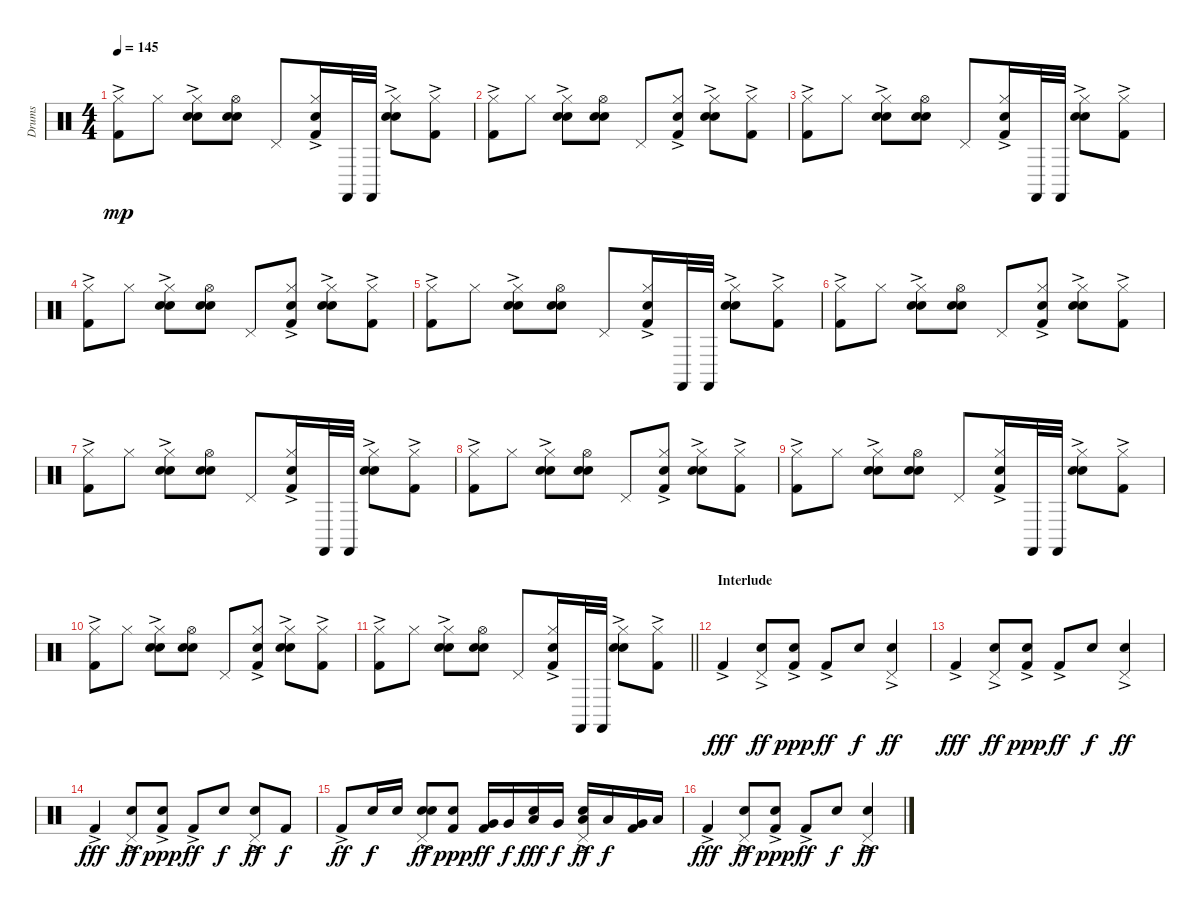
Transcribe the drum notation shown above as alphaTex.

\track ("Drums" "Drums") {instrument percussion}
\staff {score}
\articulation defaults
\ts (4 4)
\tempo 145
\clef neutral
\ks c
("Kick (hit) 2"{ac} "Hi-Hat (closed)").8{dy mp} "Hi-Hat (closed)".8 ("Hand Clap (hit)" "Electric Snare (hit)"{ac} "Hi-Hat (closed)").8 ("Hand Clap (hit)" "Electric Snare (hit)" "Hi-Hat (open)").8 "Pedal Hi-Hat (hit)".8 ("Kick (hit) 2"{ac} "Hand Clap (hit)" "Hi-Hat (closed)").16 "Castanets (hit)".32 "Castanets (hit)".32 ("Hand Clap (hit)" "Electric Snare (hit)"{ac} "Hi-Hat (closed)").8 ("Kick (hit) 2"{ac} "Hi-Hat (closed)").8 |
("Kick (hit) 2"{ac} "Hi-Hat (closed)").8 "Hi-Hat (closed)".8 ("Hand Clap (hit)" "Electric Snare (hit)"{ac} "Hi-Hat (closed)").8 ("Hand Clap (hit)" "Electric Snare (hit)" "Hi-Hat (open)").8 "Pedal Hi-Hat (hit)".8 ("Kick (hit) 2"{ac} "Hand Clap (hit)" "Hi-Hat (closed)").8 ("Hand Clap (hit)" "Electric Snare (hit)"{ac} "Hi-Hat (closed)").8 ("Kick (hit) 2"{ac} "Hi-Hat (closed)").8 |
("Kick (hit) 2"{ac} "Hi-Hat (closed)").8 "Hi-Hat (closed)".8 ("Hand Clap (hit)" "Electric Snare (hit)"{ac} "Hi-Hat (closed)").8 ("Hand Clap (hit)" "Electric Snare (hit)" "Hi-Hat (open)").8 "Pedal Hi-Hat (hit)".8 ("Kick (hit) 2"{ac} "Hand Clap (hit)" "Hi-Hat (closed)").16 "Castanets (hit)".32 "Castanets (hit)".32 ("Hand Clap (hit)" "Electric Snare (hit)"{ac} "Hi-Hat (closed)").8 ("Kick (hit) 2"{ac} "Hi-Hat (closed)").8 |
("Kick (hit) 2"{ac} "Hi-Hat (closed)").8 "Hi-Hat (closed)".8 ("Hand Clap (hit)" "Electric Snare (hit)"{ac} "Hi-Hat (closed)").8 ("Hand Clap (hit)" "Electric Snare (hit)" "Hi-Hat (open)").8 "Pedal Hi-Hat (hit)".8 ("Kick (hit) 2"{ac} "Hand Clap (hit)" "Hi-Hat (closed)").8 ("Hand Clap (hit)" "Electric Snare (hit)"{ac} "Hi-Hat (closed)").8 ("Kick (hit) 2"{ac} "Hi-Hat (closed)").8 |
("Kick (hit) 2"{ac} "Hi-Hat (closed)").8 "Hi-Hat (closed)".8 ("Hand Clap (hit)" "Electric Snare (hit)"{ac} "Hi-Hat (closed)").8 ("Hand Clap (hit)" "Electric Snare (hit)" "Hi-Hat (open)").8 "Pedal Hi-Hat (hit)".8 ("Kick (hit) 2"{ac} "Hand Clap (hit)" "Hi-Hat (closed)").16 "Castanets (hit)".32 "Castanets (hit)".32 ("Hand Clap (hit)" "Electric Snare (hit)"{ac} "Hi-Hat (closed)").8 ("Kick (hit) 2"{ac} "Hi-Hat (closed)").8 |
("Kick (hit) 2"{ac} "Hi-Hat (closed)").8 "Hi-Hat (closed)".8 ("Hand Clap (hit)" "Electric Snare (hit)"{ac} "Hi-Hat (closed)").8 ("Hand Clap (hit)" "Electric Snare (hit)" "Hi-Hat (open)").8 "Pedal Hi-Hat (hit)".8 ("Kick (hit) 2"{ac} "Hand Clap (hit)" "Hi-Hat (closed)").8 ("Hand Clap (hit)" "Electric Snare (hit)"{ac} "Hi-Hat (closed)").8 ("Kick (hit) 2"{ac} "Hi-Hat (closed)").8 |
("Kick (hit) 2"{ac} "Hi-Hat (closed)").8 "Hi-Hat (closed)".8 ("Hand Clap (hit)" "Electric Snare (hit)"{ac} "Hi-Hat (closed)").8 ("Hand Clap (hit)" "Electric Snare (hit)" "Hi-Hat (open)").8 "Pedal Hi-Hat (hit)".8 ("Kick (hit) 2"{ac} "Hand Clap (hit)" "Hi-Hat (closed)").16 "Castanets (hit)".32 "Castanets (hit)".32 ("Hand Clap (hit)" "Electric Snare (hit)"{ac} "Hi-Hat (closed)").8 ("Kick (hit) 2"{ac} "Hi-Hat (closed)").8 |
("Kick (hit) 2"{ac} "Hi-Hat (closed)").8 "Hi-Hat (closed)".8 ("Hand Clap (hit)" "Electric Snare (hit)"{ac} "Hi-Hat (closed)").8 ("Hand Clap (hit)" "Electric Snare (hit)" "Hi-Hat (open)").8 "Pedal Hi-Hat (hit)".8 ("Kick (hit) 2"{ac} "Hand Clap (hit)" "Hi-Hat (closed)").8 ("Hand Clap (hit)" "Electric Snare (hit)"{ac} "Hi-Hat (closed)").8 ("Kick (hit) 2"{ac} "Hi-Hat (closed)").8 |
("Kick (hit) 2"{ac} "Hi-Hat (closed)").8 "Hi-Hat (closed)".8 ("Hand Clap (hit)" "Electric Snare (hit)"{ac} "Hi-Hat (closed)").8 ("Hand Clap (hit)" "Electric Snare (hit)" "Hi-Hat (open)").8 "Pedal Hi-Hat (hit)".8 ("Kick (hit) 2"{ac} "Hand Clap (hit)" "Hi-Hat (closed)").16 "Castanets (hit)".32 "Castanets (hit)".32 ("Hand Clap (hit)" "Electric Snare (hit)"{ac} "Hi-Hat (closed)").8 ("Kick (hit) 2"{ac} "Hi-Hat (closed)").8 |
("Kick (hit) 2"{ac} "Hi-Hat (closed)").8 "Hi-Hat (closed)".8 ("Hand Clap (hit)" "Electric Snare (hit)"{ac} "Hi-Hat (closed)").8 ("Hand Clap (hit)" "Electric Snare (hit)" "Hi-Hat (open)").8 "Pedal Hi-Hat (hit)".8 ("Kick (hit) 2"{ac} "Hand Clap (hit)" "Hi-Hat (closed)").8 ("Hand Clap (hit)" "Electric Snare (hit)"{ac} "Hi-Hat (closed)").8 ("Kick (hit) 2"{ac} "Hi-Hat (closed)").8 |
\barLineRight lightlight
("Kick (hit) 2"{ac} "Hi-Hat (closed)").8 "Hi-Hat (closed)".8 ("Hand Clap (hit)" "Electric Snare (hit)"{ac} "Hi-Hat (closed)").8 ("Hand Clap (hit)" "Electric Snare (hit)" "Hi-Hat (open)").8 "Pedal Hi-Hat (hit)".8 ("Kick (hit) 2"{ac} "Hand Clap (hit)" "Hi-Hat (closed)").16 "Castanets (hit)".32 "Castanets (hit)".32 ("Hand Clap (hit)" "Electric Snare (hit)"{ac} "Hi-Hat (closed)").8 ("Kick (hit) 2"{ac} "Hi-Hat (closed)").8 |
\section ("" "Interlude")
"Kick (hit) 2"{ac}.4{dy fff} ("Pedal Hi-Hat (hit)" "Hand Clap (hit)"{ac}).8{dy ff} ("Kick (hit) 2"{ac} "Hand Clap (hit)").8{dy ppp} "Kick (hit) 2"{ac}.8{dy ff} "Hand Clap (hit)".8{dy f} ("Pedal Hi-Hat (hit)" "Hand Clap (hit)"{ac}).4{dy ff} |
"Kick (hit) 2"{ac}.4{dy fff} ("Pedal Hi-Hat (hit)" "Hand Clap (hit)"{ac}).8{dy ff} ("Kick (hit) 2"{ac} "Hand Clap (hit)").8{dy ppp} "Kick (hit) 2"{ac}.8{dy ff} "Hand Clap (hit)".8{dy f} ("Pedal Hi-Hat (hit)" "Hand Clap (hit)"{ac}).4{dy ff} |
"Kick (hit) 2"{ac}.4{dy fff} ("Pedal Hi-Hat (hit)" "Hand Clap (hit)"{ac}).8{dy ff} ("Kick (hit) 2"{ac} "Hand Clap (hit)").8{dy ppp} "Kick (hit) 2"{ac}.8{dy ff} "Hand Clap (hit)".8{dy f} ("Pedal Hi-Hat (hit)" "Hand Clap (hit)"{ac}).8{dy ff} "Kick (hit) 2".8{dy f} |
"Kick (hit) 2"{ac}.8{dy ff} "Electric Snare (hit)".16{dy f} "Electric Snare (hit)".16 ("Pedal Hi-Hat (hit)" "Hand Clap (hit)"{ac} "Electric Snare (hit)").8{dy ff} ("Kick (hit) 2" "Hand Clap (hit)").8{dy ppp} ("Kick (hit) 2" "Very Low Tom (hit)").16{dy ff} "Very Low Tom (hit)".16{dy f} ("Low Floor Tom (hit)" "Hand Clap (hit)").16{dy fff} "Very Low Tom (hit)".16{dy f} ("Pedal Hi-Hat (hit)" "Low Tom (hit)" "Hand Clap (hit)"{ac}).16{dy ff} "Low Tom (hit)".16{dy f} ("Kick (hit) 2" "Very Low Tom (hit)").16 "Low Floor Tom (hit)".16 |
"Kick (hit) 2"{ac}.4{dy fff} ("Pedal Hi-Hat (hit)" "Hand Clap (hit)"{ac}).8{dy ff} ("Kick (hit) 2"{ac} "Hand Clap (hit)").8{dy ppp} "Kick (hit) 2"{ac}.8{dy ff} "Hand Clap (hit)".8{dy f} ("Pedal Hi-Hat (hit)" "Hand Clap (hit)"{ac}).4{dy ff}
